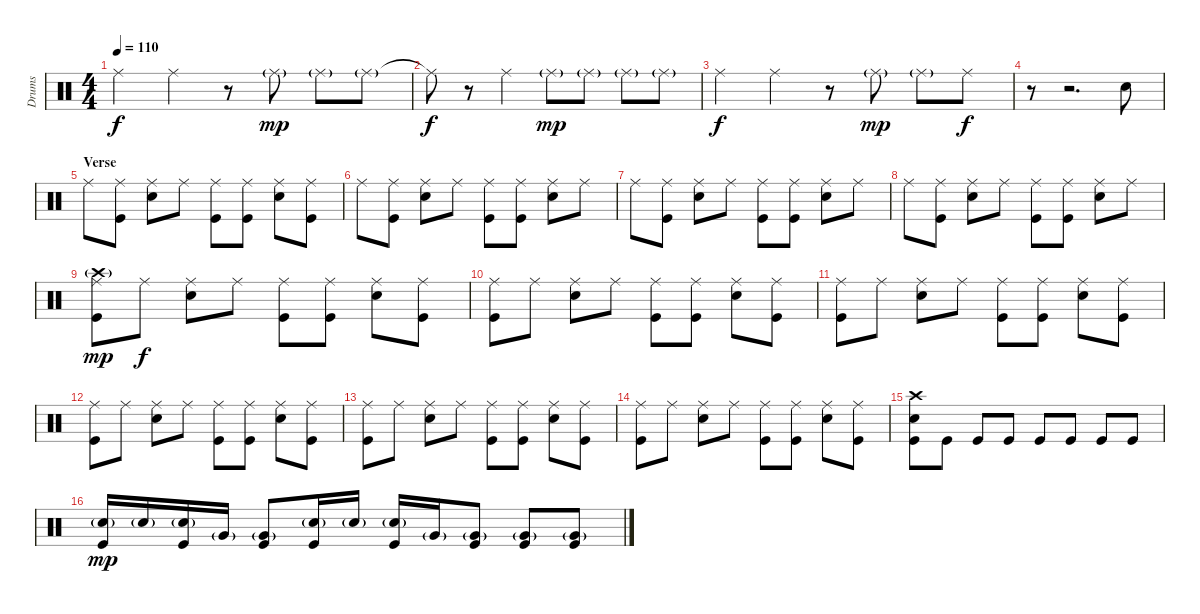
\track ("Drums" "Drums") {instrument percussion}
\staff {score}
\articulation defaults
\ts (4 4)
\tempo 110
\clef neutral
\ks c "Ride (middle)".4{dy f} "Ride (middle)".4
r.8 "Ride (middle)"{g}.8{dy mp} "Ride (middle)"{g}.8 "Ride (middle)"{g}.8 |
"Ride (middle)"{t}.8{dy f} r.8 "Ride (middle)".4 "Ride (middle)"{g}.8{dy mp} "Ride (middle)"{g}.8 "Ride (middle)"{g}.8 "Ride (middle)"{g}.8 |
"Ride (middle)".4{dy f} "Ride (middle)".4 r.8 "Ride (middle)"{g}.8{dy mp} "Ride (middle)"{g}.8 "Ride (middle)".8{dy f} |
r.8 r.2{d} "Snare (hit) 2".8 |
\section ("" "Verse")
"Ride (middle)".8 ("Ride (middle)" "Kick (hit)").8 ("Ride (middle)" "Snare (hit) 2").8 "Ride (middle)".8 ("Ride (middle)" "Kick (hit)").8 ("Ride (middle)" "Kick (hit)").8 ("Ride (middle)" "Snare (hit) 2").8 ("Ride (middle)" "Kick (hit)").8 |
"Ride (middle)".8 ("Ride (middle)" "Kick (hit)").8 ("Ride (middle)" "Snare (hit) 2").8 "Ride (middle)".8 ("Ride (middle)" "Kick (hit)").8 ("Ride (middle)" "Kick (hit)").8 ("Ride (middle)" "Snare (hit) 2").8 "Ride (middle)".8 |
"Ride (middle)".8 ("Ride (middle)" "Kick (hit)").8 ("Ride (middle)" "Snare (hit) 2").8 "Ride (middle)".8 ("Ride (middle)" "Kick (hit)").8 ("Ride (middle)" "Kick (hit)").8 ("Ride (middle)" "Snare (hit) 2").8 "Ride (middle)".8 |
"Ride (middle)".8 ("Ride (middle)" "Kick (hit)").8 ("Ride (middle)" "Snare (hit) 2").8 "Ride (middle)".8 ("Ride (middle)" "Kick (hit)").8 ("Ride (middle)" "Kick (hit)").8 ("Ride (middle)" "Snare (hit) 2").8 "Ride (middle)".8 |
("Ride (middle)" "Crash high (hit)"{g} "Kick (hit)").8{dy mp} "Ride (middle)".8{dy f} ("Ride (middle)" "Snare (hit) 2").8 "Ride (middle)".8 ("Ride (middle)" "Kick (hit)").8 ("Ride (middle)" "Kick (hit)").8 ("Ride (middle)" "Snare (hit) 2").8 ("Ride (middle)" "Kick (hit)").8 |
("Ride (middle)" "Kick (hit)").8 "Ride (middle)".8 ("Ride (middle)" "Snare (hit) 2").8 "Ride (middle)".8 ("Ride (middle)" "Kick (hit)").8 ("Ride (middle)" "Kick (hit)").8 ("Ride (middle)" "Snare (hit) 2").8 ("Ride (middle)" "Kick (hit)").8 |
("Ride (middle)" "Kick (hit)").8 "Ride (middle)".8 ("Ride (middle)" "Snare (hit) 2").8 "Ride (middle)".8 ("Ride (middle)" "Kick (hit)").8 ("Ride (middle)" "Kick (hit)").8 ("Ride (middle)" "Snare (hit) 2").8 ("Ride (middle)" "Kick (hit)").8 |
("Ride (middle)" "Kick (hit)").8 "Ride (middle)".8 ("Ride (middle)" "Snare (hit) 2").8 "Ride (middle)".8 ("Ride (middle)" "Kick (hit)").8 ("Ride (middle)" "Kick (hit)").8 ("Ride (middle)" "Snare (hit) 2").8 ("Ride (middle)" "Kick (hit)").8 |
("Ride (middle)" "Kick (hit)").8 "Ride (middle)".8 ("Ride (middle)" "Snare (hit) 2").8 "Ride (middle)".8 ("Ride (middle)" "Kick (hit)").8 ("Ride (middle)" "Kick (hit)").8 ("Ride (middle)" "Snare (hit) 2").8 ("Ride (middle)" "Kick (hit)").8 |
("Ride (middle)" "Kick (hit)").8 "Ride (middle)".8 ("Ride (middle)" "Snare (hit) 2").8 "Ride (middle)".8 ("Ride (middle)" "Kick (hit)").8 ("Ride (middle)" "Kick (hit)").8 ("Ride (middle)" "Snare (hit) 2").8 ("Ride (middle)" "Kick (hit)").8 |
("Crash high (hit)" "Snare (hit) 2" "Kick (hit)").8 "Kick (hit)".8 "Kick (hit)".8 "Kick (hit)".8 "Kick (hit)".8 "Kick (hit)".8 "Kick (hit)".8 "Kick (hit)".8 |
("Snare (hit) 2"{g} "Kick (hit)").16{dy mp} "Snare (hit) 2"{g}.16 ("Snare (hit) 2"{g} "Kick (hit)").16 "Very Low Tom (hit)"{g}.16 ("Very Low Tom (hit)"{g} "Kick (hit)").8 ("Snare (hit) 2"{g} "Kick (hit)").16 "Snare (hit) 2"{g}.16 ("Snare (hit) 2"{g} "Kick (hit)").16 "Very Low Tom (hit)"{g}.16 ("Very Low Tom (hit)"{g} "Kick (hit)").8 ("Very Low Tom (hit)"{g} "Kick (hit)").8 ("Very Low Tom (hit)"{g} "Kick (hit)").8
